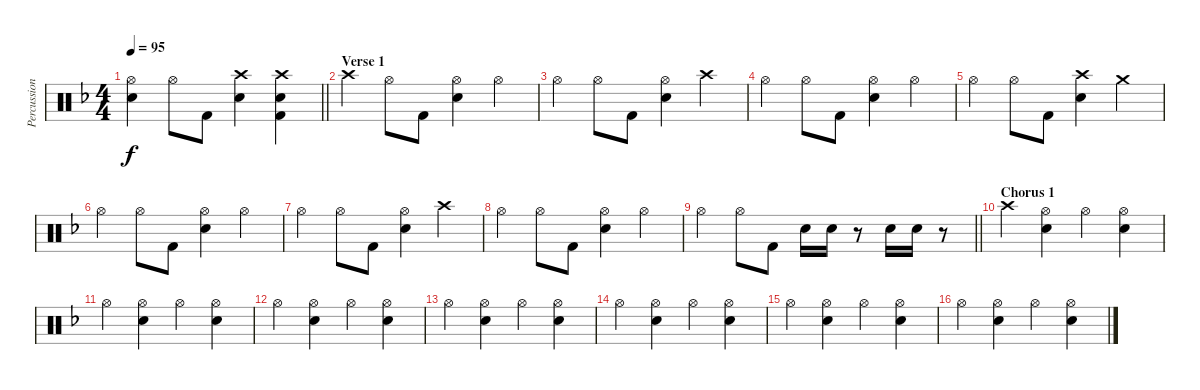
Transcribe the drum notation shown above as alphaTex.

\track ("Percussions (Scott Travis)" "Percussion") {instrument percussion}
\staff {score}
\articulation defaults
\ts (4 4)
\tempo 95
\clef neutral
\barLineRight lightlight
\ks dminor
("Hi-Hat (open)" "Snare (hit) 2").4{dy f} "Hi-Hat (open)".8 "Kick (hit) 2".8 ("Crash high (hit)" "Snare (hit) 2").4 ("Crash high (hit)" "Snare (hit) 2" "Kick (hit) 2").4 |
\section ("" "Verse 1")
"Crash high (hit)".4 "Hi-Hat (open)".8 "Kick (hit) 2".8 ("Hi-Hat (open)" "Snare (hit) 2").4 "Hi-Hat (open)".4 |
"Hi-Hat (open)".4 "Hi-Hat (open)".8 "Kick (hit) 2".8 ("Hi-Hat (open)" "Snare (hit) 2").4 "Crash high (hit)".4 |
"Hi-Hat (open)".4 "Hi-Hat (open)".8 "Kick (hit) 2".8 ("Hi-Hat (open)" "Snare (hit) 2").4 "Hi-Hat (open)".4 |
"Hi-Hat (open)".4 "Hi-Hat (open)".8 "Kick (hit) 2".8 ("Crash high (hit)" "Snare (hit) 2").4 "Crash medium (hit)".4 |
"Hi-Hat (open)".4 "Hi-Hat (open)".8 "Kick (hit) 2".8 ("Hi-Hat (open)" "Snare (hit) 2").4 "Hi-Hat (open)".4 |
"Hi-Hat (open)".4 "Hi-Hat (open)".8 "Kick (hit) 2".8 ("Hi-Hat (open)" "Snare (hit) 2").4 "Crash high (hit)".4 |
"Hi-Hat (open)".4 "Hi-Hat (open)".8 "Kick (hit) 2".8 ("Hi-Hat (open)" "Snare (hit) 2").4 "Hi-Hat (open)".4 |
\barLineRight lightlight "Hi-Hat (open)".4 "Hi-Hat (open)".8 "Kick (hit) 2".8 "Snare (hit) 2".16 "Snare (hit) 2".16
r.8 "Snare (hit) 2".16 "Snare (hit) 2".16 r.8 |
\section ("" "Chorus 1")
"Crash high (hit)".4 ("Hi-Hat (open)" "Snare (hit) 2").4 "Hi-Hat (open)".4 ("Hi-Hat (open)" "Snare (hit) 2").4 |
"Hi-Hat (open)".4 ("Hi-Hat (open)" "Snare (hit) 2").4 "Hi-Hat (open)".4 ("Hi-Hat (open)" "Snare (hit) 2").4 |
"Hi-Hat (open)".4 ("Hi-Hat (open)" "Snare (hit) 2").4 "Hi-Hat (open)".4 ("Hi-Hat (open)" "Snare (hit) 2").4 |
"Hi-Hat (open)".4 ("Hi-Hat (open)" "Snare (hit) 2").4 "Hi-Hat (open)".4 ("Hi-Hat (open)" "Snare (hit) 2").4 |
"Hi-Hat (open)".4 ("Hi-Hat (open)" "Snare (hit) 2").4 "Hi-Hat (open)".4 ("Hi-Hat (open)" "Snare (hit) 2").4 |
"Hi-Hat (open)".4 ("Hi-Hat (open)" "Snare (hit) 2").4 "Hi-Hat (open)".4 ("Hi-Hat (open)" "Snare (hit) 2").4 |
"Hi-Hat (open)".4 ("Hi-Hat (open)" "Snare (hit) 2").4 "Hi-Hat (open)".4 ("Hi-Hat (open)" "Snare (hit) 2").4
